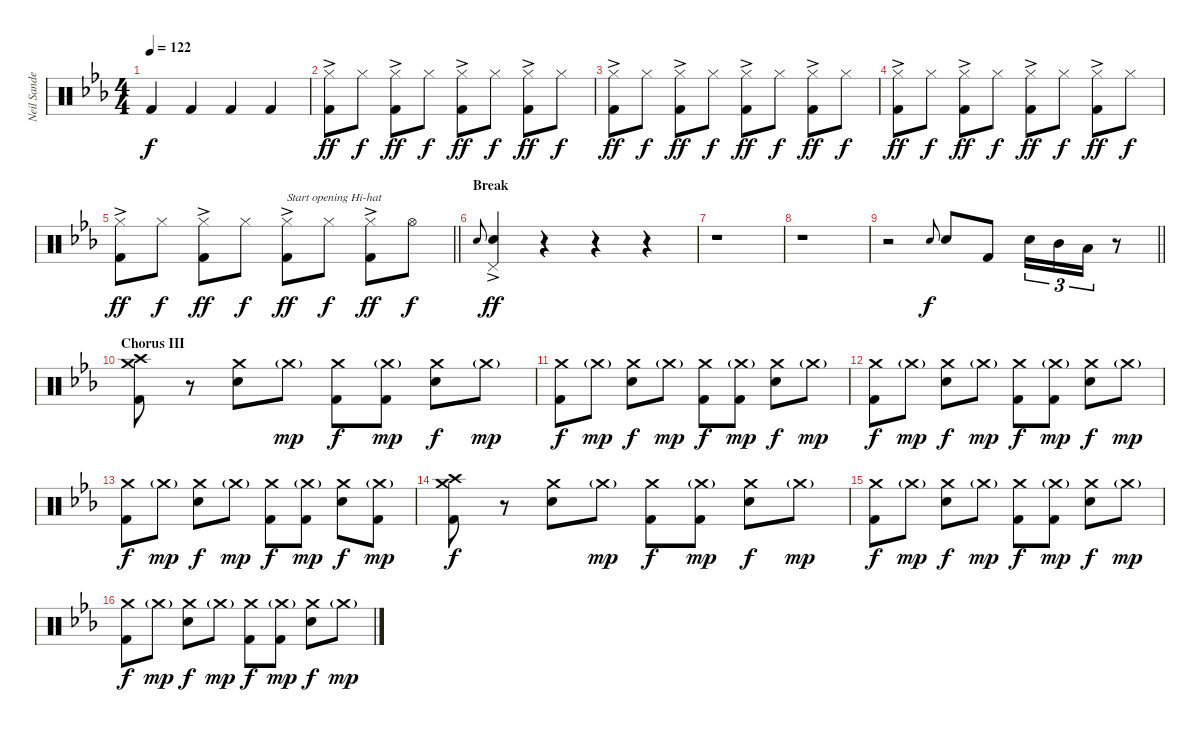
\track ("Neil Sanderson" "Neil Sande") {instrument percussion}
\staff {score}
\articulation defaults
\ts (4 4)
\tempo 122
\clef neutral
\ks cminor "Kick (hit) 2".4{dy f} "Kick (hit) 2".4 "Kick (hit) 2".4 "Kick (hit) 2".4
|
("Hi-Hat (closed)"{ac} "Kick (hit) 2").8{dy ff} "Hi-Hat (closed)".8{dy f} ("Hi-Hat (closed)"{ac} "Kick (hit) 2").8{dy ff} "Hi-Hat (closed)".8{dy f} ("Hi-Hat (closed)"{ac} "Kick (hit) 2").8{dy ff} "Hi-Hat (closed)".8{dy f} ("Hi-Hat (closed)"{ac} "Kick (hit) 2").8{dy ff} "Hi-Hat (closed)".8{dy f} |
("Hi-Hat (closed)"{ac} "Kick (hit) 2").8{dy ff} "Hi-Hat (closed)".8{dy f} ("Hi-Hat (closed)"{ac} "Kick (hit) 2").8{dy ff} "Hi-Hat (closed)".8{dy f} ("Hi-Hat (closed)"{ac} "Kick (hit) 2").8{dy ff} "Hi-Hat (closed)".8{dy f} ("Hi-Hat (closed)"{ac} "Kick (hit) 2").8{dy ff} "Hi-Hat (closed)".8{dy f} |
("Hi-Hat (closed)"{ac} "Kick (hit) 2").8{dy ff} "Hi-Hat (closed)".8{dy f} ("Hi-Hat (closed)"{ac} "Kick (hit) 2").8{dy ff} "Hi-Hat (closed)".8{dy f} ("Hi-Hat (closed)"{ac} "Kick (hit) 2").8{dy ff} "Hi-Hat (closed)".8{dy f} ("Hi-Hat (closed)"{ac} "Kick (hit) 2").8{dy ff} "Hi-Hat (closed)".8{dy f} |
\barLineRight lightlight
("Hi-Hat (closed)"{ac} "Kick (hit) 2").8{dy ff} "Hi-Hat (closed)".8{dy f} ("Hi-Hat (closed)"{ac} "Kick (hit) 2").8{dy ff} "Hi-Hat (closed)".8{dy f} ("Hi-Hat (closed)"{ac} "Kick (hit) 2").8{txt "Start opening Hi-hat" dy ff} "Hi-Hat (closed)".8{dy f} ("Hi-Hat (closed)"{ac} "Kick (hit) 2").8{dy ff} "Hi-Hat (open)".8{dy f} |
\section ("" "Break")
"Electric Snare (hit)".8{gr onbeat} ("Electric Snare (hit)"{ac} "Pedal Hi-Hat (hit)").4{dy ff} r.4 r.4 r.4 |
r.1 |
r.1 |
\barLineRight lightlight
r.2 "Electric Snare (hit)".8{gr onbeat dy f} "Electric Snare (hit)".8 "Kick (hit) 2".8 "Electric Snare (hit)".16{tu (3 2)} "Mid Tom (hit)".16{tu (3 2)} "Low Tom (hit)".16{tu (3 2)} r.8 |
\section ("" "Chorus III")
("Crash medium (hit)" "Crash high (hit)" "Kick (hit) 2").8 r.8 ("Crash medium (hit)" "Electric Snare (hit)").8 "Crash medium (hit)"{g}.8{dy mp} ("Crash medium (hit)" "Kick (hit) 2").8{dy f} ("Crash medium (hit)"{g} "Kick (hit) 2").8{dy mp} ("Crash medium (hit)" "Electric Snare (hit)").8{dy f} "Crash medium (hit)"{g}.8{dy mp} |
("Crash medium (hit)" "Kick (hit) 2").8{dy f} "Crash medium (hit)"{g}.8{dy mp} ("Crash medium (hit)" "Electric Snare (hit)").8{dy f} "Crash medium (hit)"{g}.8{dy mp} ("Crash medium (hit)" "Kick (hit) 2").8{dy f} ("Crash medium (hit)"{g} "Kick (hit) 2").8{dy mp} ("Crash medium (hit)" "Electric Snare (hit)").8{dy f} "Crash medium (hit)"{g}.8{dy mp} |
("Crash medium (hit)" "Kick (hit) 2").8{dy f} "Crash medium (hit)"{g}.8{dy mp} ("Crash medium (hit)" "Electric Snare (hit)").8{dy f} "Crash medium (hit)"{g}.8{dy mp} ("Crash medium (hit)" "Kick (hit) 2").8{dy f} ("Crash medium (hit)"{g} "Kick (hit) 2").8{dy mp} ("Crash medium (hit)" "Electric Snare (hit)").8{dy f} "Crash medium (hit)"{g}.8{dy mp} |
("Crash medium (hit)" "Kick (hit) 2").8{dy f} "Crash medium (hit)"{g}.8{dy mp} ("Crash medium (hit)" "Electric Snare (hit)").8{dy f} "Crash medium (hit)"{g}.8{dy mp} ("Crash medium (hit)" "Kick (hit) 2").8{dy f} ("Crash medium (hit)"{g} "Kick (hit) 2").8{dy mp} ("Crash medium (hit)" "Electric Snare (hit)").8{dy f} ("Crash medium (hit)"{g} "Kick (hit) 2").8{dy mp} |
("Crash medium (hit)" "Crash high (hit)" "Kick (hit) 2").8{dy f} r.8 ("Crash medium (hit)" "Electric Snare (hit)").8 "Crash medium (hit)"{g}.8{dy mp} ("Crash medium (hit)" "Kick (hit) 2").8{dy f} ("Crash medium (hit)"{g} "Kick (hit) 2").8{dy mp} ("Crash medium (hit)" "Electric Snare (hit)").8{dy f} "Crash medium (hit)"{g}.8{dy mp} |
("Crash medium (hit)" "Kick (hit) 2").8{dy f} "Crash medium (hit)"{g}.8{dy mp} ("Crash medium (hit)" "Electric Snare (hit)").8{dy f} "Crash medium (hit)"{g}.8{dy mp} ("Crash medium (hit)" "Kick (hit) 2").8{dy f} ("Crash medium (hit)"{g} "Kick (hit) 2").8{dy mp} ("Crash medium (hit)" "Electric Snare (hit)").8{dy f} "Crash medium (hit)"{g}.8{dy mp} |
("Crash medium (hit)" "Kick (hit) 2").8{dy f} "Crash medium (hit)"{g}.8{dy mp} ("Crash medium (hit)" "Electric Snare (hit)").8{dy f} "Crash medium (hit)"{g}.8{dy mp} ("Crash medium (hit)" "Kick (hit) 2").8{dy f} ("Crash medium (hit)"{g} "Kick (hit) 2").8{dy mp} ("Crash medium (hit)" "Electric Snare (hit)").8{dy f} "Crash medium (hit)"{g}.8{dy mp}
